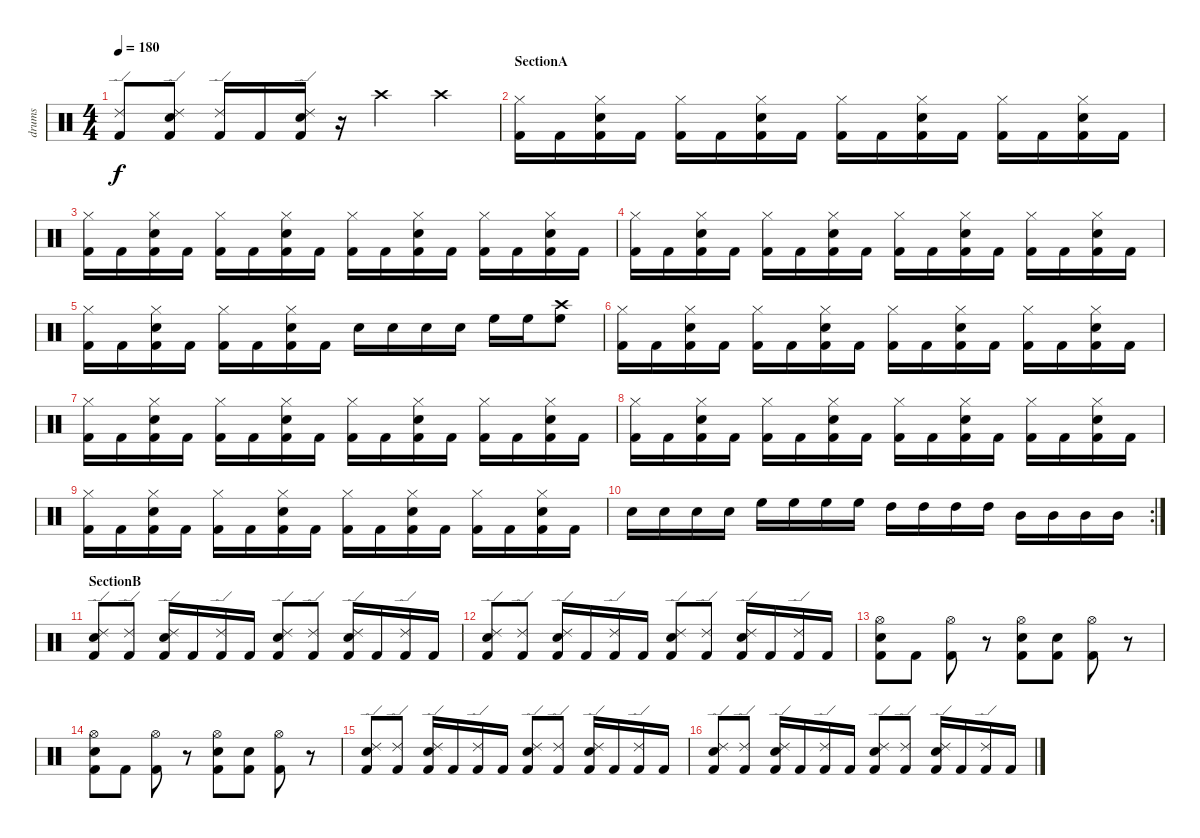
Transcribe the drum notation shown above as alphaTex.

\track ("drums" "drums") {instrument percussion}
\staff {score}
\articulation defaults
\ts (4 4)
\tempo 180
\clef neutral
\ks c
("Ride (edge) 2" "Kick (hit) 2").8{dy f} ("Snare (hit) 2" "Ride (edge) 2" "Kick (hit) 2").8 ("Ride (edge) 2" "Kick (hit) 2").16 "Kick (hit) 2".16 ("Snare (hit) 2" "Ride (edge) 2" "Kick (hit) 2").16 r.16 "Crash high (hit)".4 "Crash high (hit)".4 |
\section ("" "SectionA")
("Hi-Hat (closed)" "Kick (hit) 2").16 "Kick (hit) 2".16 ("Snare (hit) 2" "Hi-Hat (closed)" "Kick (hit) 2").16 "Kick (hit) 2".16 ("Hi-Hat (closed)" "Kick (hit) 2").16 "Kick (hit) 2".16 ("Snare (hit) 2" "Hi-Hat (closed)" "Kick (hit) 2").16 "Kick (hit) 2".16 ("Hi-Hat (closed)" "Kick (hit) 2").16 "Kick (hit) 2".16 ("Snare (hit) 2" "Hi-Hat (closed)" "Kick (hit) 2").16 "Kick (hit) 2".16 ("Hi-Hat (closed)" "Kick (hit) 2").16 "Kick (hit) 2".16 ("Snare (hit) 2" "Hi-Hat (closed)" "Kick (hit) 2").16 "Kick (hit) 2".16 |
("Hi-Hat (closed)" "Kick (hit) 2").16 "Kick (hit) 2".16 ("Snare (hit) 2" "Hi-Hat (closed)" "Kick (hit) 2").16 "Kick (hit) 2".16 ("Hi-Hat (closed)" "Kick (hit) 2").16 "Kick (hit) 2".16 ("Snare (hit) 2" "Hi-Hat (closed)" "Kick (hit) 2").16 "Kick (hit) 2".16 ("Hi-Hat (closed)" "Kick (hit) 2").16 "Kick (hit) 2".16 ("Snare (hit) 2" "Hi-Hat (closed)" "Kick (hit) 2").16 "Kick (hit) 2".16 ("Hi-Hat (closed)" "Kick (hit) 2").16 "Kick (hit) 2".16 ("Snare (hit) 2" "Hi-Hat (closed)" "Kick (hit) 2").16 "Kick (hit) 2".16 |
("Hi-Hat (closed)" "Kick (hit) 2").16 "Kick (hit) 2".16 ("Snare (hit) 2" "Hi-Hat (closed)" "Kick (hit) 2").16 "Kick (hit) 2".16 ("Hi-Hat (closed)" "Kick (hit) 2").16 "Kick (hit) 2".16 ("Snare (hit) 2" "Hi-Hat (closed)" "Kick (hit) 2").16 "Kick (hit) 2".16 ("Hi-Hat (closed)" "Kick (hit) 2").16 "Kick (hit) 2".16 ("Snare (hit) 2" "Hi-Hat (closed)" "Kick (hit) 2").16 "Kick (hit) 2".16 ("Hi-Hat (closed)" "Kick (hit) 2").16 "Kick (hit) 2".16 ("Snare (hit) 2" "Hi-Hat (closed)" "Kick (hit) 2").16 "Kick (hit) 2".16 |
("Hi-Hat (closed)" "Kick (hit) 2").16 "Kick (hit) 2".16 ("Snare (hit) 2" "Hi-Hat (closed)" "Kick (hit) 2").16 "Kick (hit) 2".16 ("Hi-Hat (closed)" "Kick (hit) 2").16 "Kick (hit) 2".16 ("Snare (hit) 2" "Hi-Hat (closed)" "Kick (hit) 2").16 "Kick (hit) 2".16 "Snare (hit) 2".16 "Snare (hit) 2".16 "Snare (hit) 2".16 "Snare (hit) 2".16 "High Floor Tom (hit)".16 "High Floor Tom (hit)".16 ("Crash high (hit)" "High Floor Tom (hit)").8 |
("Hi-Hat (closed)" "Kick (hit) 2").16 "Kick (hit) 2".16 ("Snare (hit) 2" "Hi-Hat (closed)" "Kick (hit) 2").16 "Kick (hit) 2".16 ("Hi-Hat (closed)" "Kick (hit) 2").16 "Kick (hit) 2".16 ("Snare (hit) 2" "Hi-Hat (closed)" "Kick (hit) 2").16 "Kick (hit) 2".16 ("Hi-Hat (closed)" "Kick (hit) 2").16 "Kick (hit) 2".16 ("Snare (hit) 2" "Hi-Hat (closed)" "Kick (hit) 2").16 "Kick (hit) 2".16 ("Hi-Hat (closed)" "Kick (hit) 2").16 "Kick (hit) 2".16 ("Snare (hit) 2" "Hi-Hat (closed)" "Kick (hit) 2").16 "Kick (hit) 2".16 |
("Hi-Hat (closed)" "Kick (hit) 2").16 "Kick (hit) 2".16 ("Snare (hit) 2" "Hi-Hat (closed)" "Kick (hit) 2").16 "Kick (hit) 2".16 ("Hi-Hat (closed)" "Kick (hit) 2").16 "Kick (hit) 2".16 ("Snare (hit) 2" "Hi-Hat (closed)" "Kick (hit) 2").16 "Kick (hit) 2".16 ("Hi-Hat (closed)" "Kick (hit) 2").16 "Kick (hit) 2".16 ("Snare (hit) 2" "Hi-Hat (closed)" "Kick (hit) 2").16 "Kick (hit) 2".16 ("Hi-Hat (closed)" "Kick (hit) 2").16 "Kick (hit) 2".16 ("Snare (hit) 2" "Hi-Hat (closed)" "Kick (hit) 2").16 "Kick (hit) 2".16 |
("Hi-Hat (closed)" "Kick (hit) 2").16 "Kick (hit) 2".16 ("Snare (hit) 2" "Hi-Hat (closed)" "Kick (hit) 2").16 "Kick (hit) 2".16 ("Hi-Hat (closed)" "Kick (hit) 2").16 "Kick (hit) 2".16 ("Snare (hit) 2" "Hi-Hat (closed)" "Kick (hit) 2").16 "Kick (hit) 2".16 ("Hi-Hat (closed)" "Kick (hit) 2").16 "Kick (hit) 2".16 ("Snare (hit) 2" "Hi-Hat (closed)" "Kick (hit) 2").16 "Kick (hit) 2".16 ("Hi-Hat (closed)" "Kick (hit) 2").16 "Kick (hit) 2".16 ("Snare (hit) 2" "Hi-Hat (closed)" "Kick (hit) 2").16 "Kick (hit) 2".16 |
("Hi-Hat (closed)" "Kick (hit) 2").16 "Kick (hit) 2".16 ("Snare (hit) 2" "Hi-Hat (closed)" "Kick (hit) 2").16 "Kick (hit) 2".16 ("Hi-Hat (closed)" "Kick (hit) 2").16 "Kick (hit) 2".16 ("Snare (hit) 2" "Hi-Hat (closed)" "Kick (hit) 2").16 "Kick (hit) 2".16 ("Hi-Hat (closed)" "Kick (hit) 2").16 "Kick (hit) 2".16 ("Snare (hit) 2" "Hi-Hat (closed)" "Kick (hit) 2").16 "Kick (hit) 2".16 ("Hi-Hat (closed)" "Kick (hit) 2").16 "Kick (hit) 2".16 ("Snare (hit) 2" "Hi-Hat (closed)" "Kick (hit) 2").16 "Kick (hit) 2".16 |
\rc 2 "Snare (hit) 2".16 "Snare (hit) 2".16 "Snare (hit) 2".16 "Snare (hit) 2".16 "High Floor Tom (hit)".16 "High Floor Tom (hit)".16 "High Floor Tom (hit)".16 "High Floor Tom (hit)".16 "High Tom (hit)".16 "High Tom (hit)".16 "High Tom (hit)".16 "High Tom (hit)".16 "Mid Tom (hit)".16 "Mid Tom (hit)".16 "Mid Tom (hit)".16 "Mid Tom (hit)".16
|
\section ("" "SectionB")
("Snare (hit) 2" "Ride (edge) 2" "Kick (hit) 2").8 ("Ride (edge) 2" "Kick (hit) 2").8 ("Snare (hit) 2" "Ride (edge) 2" "Kick (hit) 2").16 "Kick (hit) 2".16 ("Ride (edge) 2" "Kick (hit) 2").16 "Kick (hit) 2".16 ("Snare (hit) 2" "Ride (edge) 2" "Kick (hit) 2").8 ("Ride (edge) 2" "Kick (hit) 2").8 ("Snare (hit) 2" "Ride (edge) 2" "Kick (hit) 2").16 "Kick (hit) 2".16 ("Ride (edge) 2" "Kick (hit) 2").16 "Kick (hit) 2".16 |
("Snare (hit) 2" "Ride (edge) 2" "Kick (hit) 2").8 ("Ride (edge) 2" "Kick (hit) 2").8 ("Snare (hit) 2" "Ride (edge) 2" "Kick (hit) 2").16 "Kick (hit) 2".16 ("Ride (edge) 2" "Kick (hit) 2").16 "Kick (hit) 2".16 ("Snare (hit) 2" "Ride (edge) 2" "Kick (hit) 2").8 ("Ride (edge) 2" "Kick (hit) 2").8 ("Snare (hit) 2" "Ride (edge) 2" "Kick (hit) 2").16 "Kick (hit) 2".16 ("Ride (edge) 2" "Kick (hit) 2").16 "Kick (hit) 2".16 |
("Snare (hit) 2" "Hi-Hat (open)" "Kick (hit) 2").8 "Kick (hit) 2".8 ("Hi-Hat (open)" "Kick (hit) 2").8 r.8 ("Snare (hit) 2" "Hi-Hat (open)" "Kick (hit) 2").8 ("Snare (hit) 2" "Kick (hit) 2").8 ("Hi-Hat (open)" "Kick (hit) 2").8 r.8 |
("Snare (hit) 2" "Hi-Hat (open)" "Kick (hit) 2").8 "Kick (hit) 2".8 ("Hi-Hat (open)" "Kick (hit) 2").8 r.8 ("Snare (hit) 2" "Hi-Hat (open)" "Kick (hit) 2").8 ("Snare (hit) 2" "Kick (hit) 2").8 ("Hi-Hat (open)" "Kick (hit) 2").8 r.8 |
("Snare (hit) 2" "Ride (edge) 2" "Kick (hit) 2").8 ("Ride (edge) 2" "Kick (hit) 2").8 ("Snare (hit) 2" "Ride (edge) 2" "Kick (hit) 2").16 "Kick (hit) 2".16 ("Ride (edge) 2" "Kick (hit) 2").16 "Kick (hit) 2".16 ("Snare (hit) 2" "Ride (edge) 2" "Kick (hit) 2").8 ("Ride (edge) 2" "Kick (hit) 2").8 ("Snare (hit) 2" "Ride (edge) 2" "Kick (hit) 2").16 "Kick (hit) 2".16 ("Ride (edge) 2" "Kick (hit) 2").16 "Kick (hit) 2".16 |
("Snare (hit) 2" "Ride (edge) 2" "Kick (hit) 2").8 ("Ride (edge) 2" "Kick (hit) 2").8 ("Snare (hit) 2" "Ride (edge) 2" "Kick (hit) 2").16 "Kick (hit) 2".16 ("Ride (edge) 2" "Kick (hit) 2").16 "Kick (hit) 2".16 ("Snare (hit) 2" "Ride (edge) 2" "Kick (hit) 2").8 ("Ride (edge) 2" "Kick (hit) 2").8 ("Snare (hit) 2" "Ride (edge) 2" "Kick (hit) 2").16 "Kick (hit) 2".16 ("Ride (edge) 2" "Kick (hit) 2").16 "Kick (hit) 2".16
